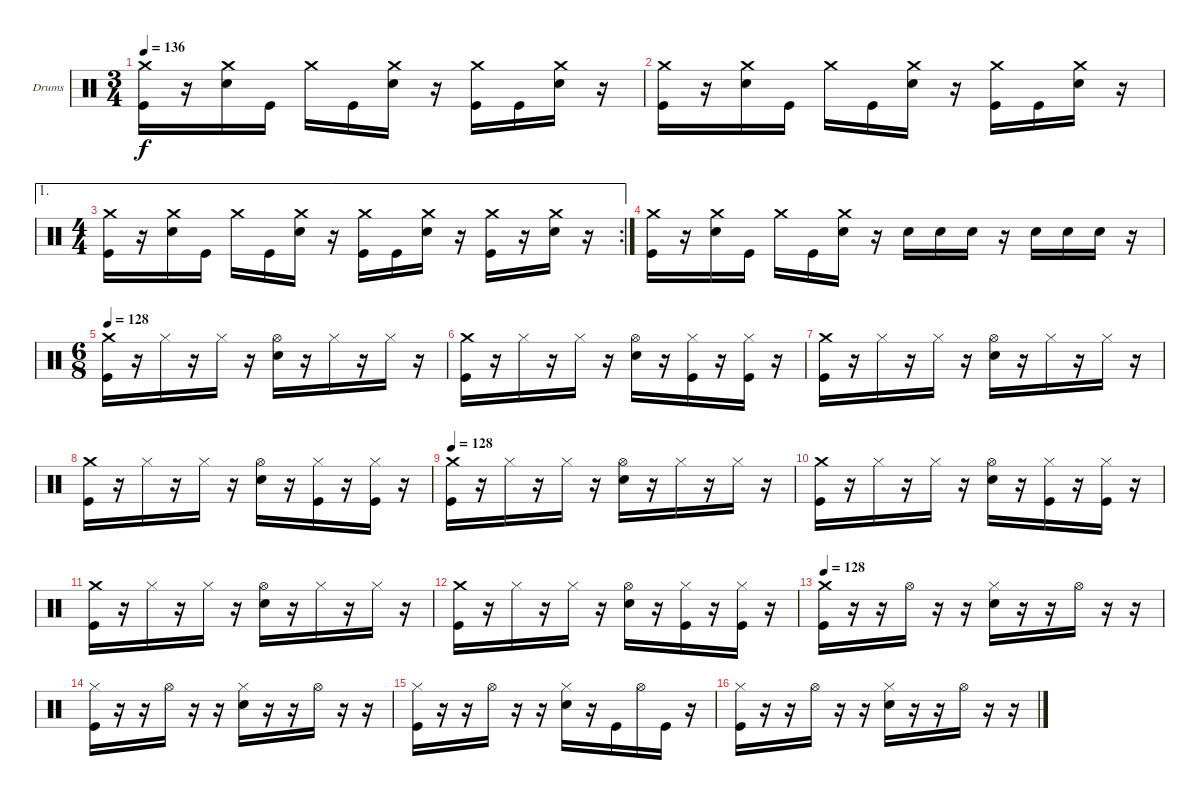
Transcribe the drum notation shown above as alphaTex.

\bracketExtendMode groupsimilarinstruments
\firstSystemTrackNameOrientation horizontal
\otherSystemsTrackNameOrientation horizontal
\track ("Drumkit" "Drums") {solo instrument percussion}
\staff {score}
\articulation defaults
\ts (3 4)
\tempo 136
\clef neutral
\ks c
("Crash medium (hit)" "Kick (hit)").16{dy f} r.16 ("Crash medium (hit)" "Snare (hit) 2").16 "Kick (hit)".16 "Crash medium (hit)".16 "Kick (hit)".16 ("Crash medium (hit)" "Snare (hit) 2").16 r.16 ("Crash medium (hit)" "Kick (hit)").16 "Kick (hit)".16 ("Crash medium (hit)" "Snare (hit) 2").16 r.16 |
("Crash medium (hit)" "Kick (hit)").16 r.16 ("Crash medium (hit)" "Snare (hit) 2").16 "Kick (hit)".16 "Crash medium (hit)".16 "Kick (hit)".16 ("Crash medium (hit)" "Snare (hit) 2").16 r.16 ("Crash medium (hit)" "Kick (hit)").16 "Kick (hit)".16 ("Crash medium (hit)" "Snare (hit) 2").16 r.16 |
\ae 1
\rc 2
\ts (4 4)
\beaming (8 2 2 2 2)
("Crash medium (hit)" "Kick (hit)").16 r.16 ("Crash medium (hit)" "Snare (hit) 2").16 "Kick (hit)".16 "Crash medium (hit)".16 "Kick (hit)".16 ("Crash medium (hit)" "Snare (hit) 2").16 r.16 ("Crash medium (hit)" "Kick (hit)").16 "Kick (hit)".16 ("Crash medium (hit)" "Snare (hit) 2").16 r.16 ("Crash medium (hit)" "Kick (hit)").16 r.16 ("Crash medium (hit)" "Snare (hit) 2").16 r.16 |
("Crash medium (hit)" "Kick (hit)").16 r.16 ("Crash medium (hit)" "Snare (hit) 2").16 "Kick (hit)".16 "Crash medium (hit)".16 "Kick (hit)".16 ("Crash medium (hit)" "Snare (hit) 2").16 r.16 "Snare (hit) 2".16 "Snare (hit) 2".16 "Snare (hit) 2".16 r.16 "Snare (hit) 2".16 "Snare (hit) 2".16 "Snare (hit) 2".16 r.16 |
\ts (6 8)
\beaming (8 3 3)
\tempo 128
("Crash medium (hit)" "Kick (hit)").16 r.16 "Hi-Hat (closed)".16 r.16 "Hi-Hat (closed)".16 r.16 ("Hi-Hat (open)" "Snare (hit) 2").16 r.16 "Hi-Hat (closed)".16 r.16 "Hi-Hat (closed)".16 r.16 |
("Crash medium (hit)" "Kick (hit)").16 r.16 "Hi-Hat (closed)".16 r.16 "Hi-Hat (closed)".16 r.16 ("Hi-Hat (open)" "Snare (hit) 2").16 r.16 ("Hi-Hat (closed)" "Kick (hit)").16 r.16 ("Hi-Hat (closed)" "Kick (hit)").16 r.16 |
("Crash medium (hit)" "Kick (hit)").16 r.16 "Hi-Hat (closed)".16 r.16 "Hi-Hat (closed)".16 r.16 ("Hi-Hat (open)" "Snare (hit) 2").16 r.16 "Hi-Hat (closed)".16 r.16 "Hi-Hat (closed)".16 r.16 |
("Crash medium (hit)" "Kick (hit)").16 r.16 "Hi-Hat (closed)".16 r.16 "Hi-Hat (closed)".16 r.16 ("Hi-Hat (open)" "Snare (hit) 2").16 r.16 ("Hi-Hat (closed)" "Kick (hit)").16 r.16 ("Hi-Hat (closed)" "Kick (hit)").16 r.16 |
\tempo 128
("Crash medium (hit)" "Kick (hit)").16 r.16 "Hi-Hat (closed)".16 r.16 "Hi-Hat (closed)".16 r.16 ("Hi-Hat (open)" "Snare (hit) 2").16 r.16 "Hi-Hat (closed)".16 r.16 "Hi-Hat (closed)".16 r.16 |
("Crash medium (hit)" "Kick (hit)").16 r.16 "Hi-Hat (closed)".16 r.16 "Hi-Hat (closed)".16 r.16 ("Hi-Hat (open)" "Snare (hit) 2").16 r.16 ("Hi-Hat (closed)" "Kick (hit)").16 r.16 ("Hi-Hat (closed)" "Kick (hit)").16 r.16 |
("Crash medium (hit)" "Kick (hit)").16 r.16 "Hi-Hat (closed)".16 r.16 "Hi-Hat (closed)".16 r.16 ("Hi-Hat (open)" "Snare (hit) 2").16 r.16 "Hi-Hat (closed)".16 r.16 "Hi-Hat (closed)".16 r.16 |
("Crash medium (hit)" "Kick (hit)").16 r.16 "Hi-Hat (closed)".16 r.16 "Hi-Hat (closed)".16 r.16 ("Hi-Hat (open)" "Snare (hit) 2").16 r.16 ("Hi-Hat (closed)" "Kick (hit)").16 r.16 ("Hi-Hat (closed)" "Kick (hit)").16 r.16 |
\tempo 128
("Crash medium (hit)" "Kick (hit)").16 r.16 r.16 "Hi-Hat (open)".16 r.16 r.16 ("Hi-Hat (closed)" "Snare (hit) 2").16 r.16 r.16 "Hi-Hat (open)".16 r.16 r.16 |
("Hi-Hat (closed)" "Kick (hit)").16 r.16 r.16 "Hi-Hat (open)".16 r.16 r.16 ("Hi-Hat (closed)" "Snare (hit) 2").16 r.16 r.16 "Hi-Hat (open)".16 r.16 r.16 |
("Hi-Hat (closed)" "Kick (hit)").16 r.16 r.16 "Hi-Hat (open)".16 r.16 r.16 ("Hi-Hat (closed)" "Snare (hit) 2").16 r.16 "Kick (hit)".16 "Hi-Hat (open)".16 "Kick (hit)".16 r.16 |
("Hi-Hat (closed)" "Kick (hit)").16 r.16 r.16 "Hi-Hat (open)".16 r.16 r.16 ("Hi-Hat (closed)" "Snare (hit) 2").16 r.16 r.16 "Hi-Hat (open)".16 r.16 r.16
